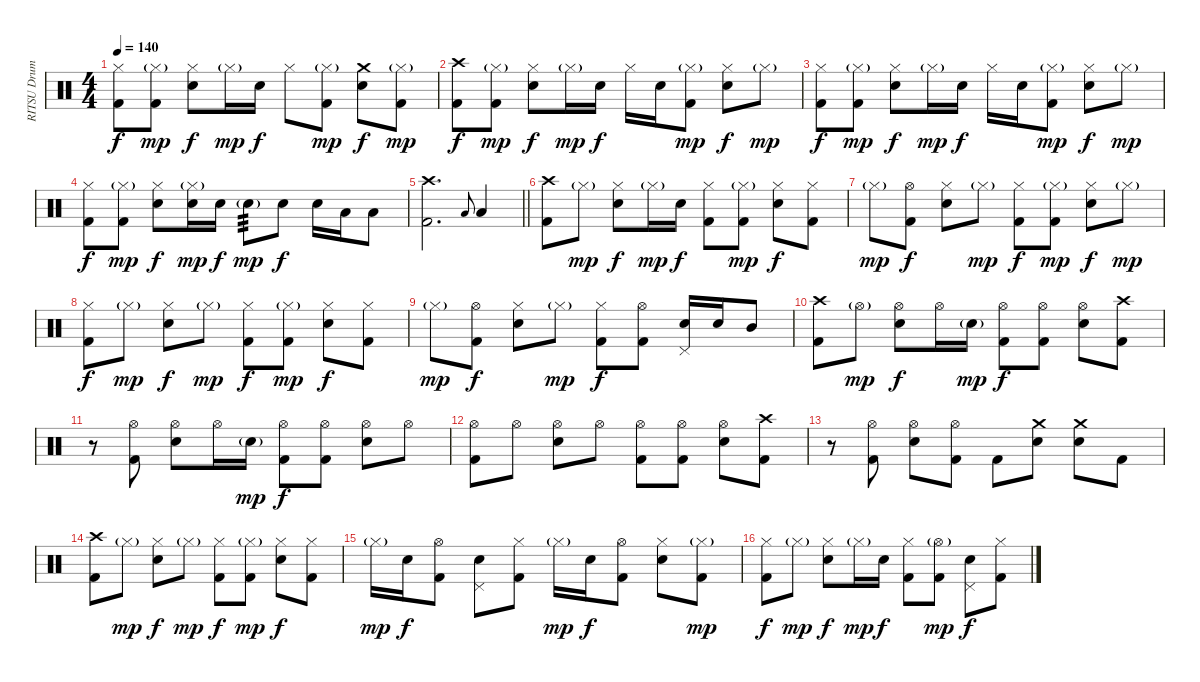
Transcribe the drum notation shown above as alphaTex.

\track ("RITSU Drums" "RITSU Drum") {instrument percussion}
\staff {score}
\articulation defaults
\ts (4 4)
\tempo 140
\clef neutral
\ks c
("Hi-Hat (closed)" "Kick (hit) 2").8{dy f} ("Hi-Hat (closed)"{g} "Kick (hit) 2").8{dy mp} ("Hi-Hat (closed)" "Electric Snare (hit)").8{dy f} "Hi-Hat (closed)"{g}.16{dy mp} "Electric Snare (hit)".16{dy f} "Hi-Hat (closed)".8 ("Hi-Hat (closed)"{g} "Kick (hit) 2").8{dy mp} ("Crash medium (hit)" "Electric Snare (hit)").8{dy f} ("Hi-Hat (closed)"{g} "Kick (hit) 2").8{dy mp} |
("Crash high (hit)" "Kick (hit) 2").8{dy f} ("Hi-Hat (closed)"{g} "Kick (hit) 2").8{dy mp} ("Hi-Hat (closed)" "Electric Snare (hit)").8{dy f} "Hi-Hat (closed)"{g}.16{dy mp} "Electric Snare (hit)".16{dy f} "Hi-Hat (closed)".16 "Electric Snare (hit)".16 ("Hi-Hat (closed)"{g} "Kick (hit) 2").8{dy mp} ("Hi-Hat (closed)" "Electric Snare (hit)").8{dy f} "Hi-Hat (closed)"{g}.8{dy mp} |
("Hi-Hat (closed)" "Kick (hit) 2").8{dy f} ("Hi-Hat (closed)"{g} "Kick (hit) 2").8{dy mp} ("Hi-Hat (closed)" "Electric Snare (hit)").8{dy f} "Hi-Hat (closed)"{g}.16{dy mp} "Electric Snare (hit)".16{dy f} "Hi-Hat (closed)".16 "Electric Snare (hit)".16 ("Hi-Hat (closed)"{g} "Kick (hit) 2").8{dy mp} ("Hi-Hat (closed)" "Electric Snare (hit)").8{dy f} "Hi-Hat (closed)"{g}.8{dy mp} |
("Hi-Hat (closed)" "Kick (hit) 2").8{dy f} ("Hi-Hat (closed)"{g} "Kick (hit) 2").8{dy mp} ("Hi-Hat (closed)" "Electric Snare (hit)").8{dy f} ("Hi-Hat (closed)"{g} "Electric Snare (hit)").16{dy mp} "Electric Snare (hit)".16{dy f} "Electric Snare (hit)"{g}.8{tp 3 dy mp} "Electric Snare (hit)".8{dy f} "Electric Snare (hit)".16 "Low Tom (hit)".16 "Low Floor Tom (hit)".8 |
\barLineRight lightlight
("Crash high (hit)" "Kick (hit) 2").2{d} "Low Floor Tom (hit)".8{gr onbeat} "Low Floor Tom (hit)".4 |
("Crash high (hit)" "Kick (hit) 2").8 "Hi-Hat (closed)"{g}.8{dy mp} ("Hi-Hat (closed)" "Electric Snare (hit)").8{dy f} "Hi-Hat (closed)"{g}.16{dy mp} "Electric Snare (hit)".16{dy f} ("Hi-Hat (closed)" "Kick (hit) 2").8 ("Hi-Hat (closed)"{g} "Kick (hit) 2").8{dy mp} ("Hi-Hat (closed)" "Electric Snare (hit)").8{dy f} ("Hi-Hat (closed)" "Kick (hit) 2").8 |
"Hi-Hat (closed)"{g}.8{dy mp} ("Hi-Hat (open)" "Kick (hit) 2").8{dy f} ("Hi-Hat (closed)" "Electric Snare (hit)").8 "Hi-Hat (closed)"{g}.8{dy mp} ("Hi-Hat (closed)" "Kick (hit) 2").8{dy f} ("Hi-Hat (closed)"{g} "Kick (hit) 2").8{dy mp} ("Hi-Hat (closed)" "Electric Snare (hit)").8{dy f} "Hi-Hat (closed)"{g}.8{dy mp} |
("Hi-Hat (closed)" "Kick (hit) 2").8{dy f} "Hi-Hat (closed)"{g}.8{dy mp} ("Hi-Hat (closed)" "Electric Snare (hit)").8{dy f} "Hi-Hat (closed)"{g}.8{dy mp} ("Hi-Hat (closed)" "Kick (hit) 2").8{dy f} ("Hi-Hat (closed)"{g} "Kick (hit) 2").8{dy mp} ("Hi-Hat (closed)" "Electric Snare (hit)").8{dy f} ("Hi-Hat (closed)" "Kick (hit) 2").8 |
"Hi-Hat (closed)"{g}.8{dy mp} ("Hi-Hat (open)" "Kick (hit) 2").8{dy f} ("Hi-Hat (closed)" "Electric Snare (hit)").8 "Hi-Hat (closed)"{g}.8{dy mp} ("Hi-Hat (closed)" "Kick (hit) 2").8{dy f} ("Hi-Hat (open)" "Kick (hit) 2").8 ("Pedal Hi-Hat (hit)" "Electric Snare (hit)").16 "Electric Snare (hit)".16 "Mid Tom (hit)".8 |
("Crash high (hit)" "Kick (hit) 2").8 "Hi-Hat (open)"{g}.8{dy mp} ("Hi-Hat (open)" "Electric Snare (hit)").8{dy f} "Hi-Hat (open)".16 "Electric Snare (hit)"{g}.16{dy mp} ("Hi-Hat (open)" "Kick (hit) 2").8{dy f} ("Hi-Hat (open)" "Kick (hit) 2").8 ("Hi-Hat (open)" "Electric Snare (hit)").8 ("Crash high (hit)" "Kick (hit) 2").8 |
r.8 ("Hi-Hat (open)" "Kick (hit) 2").8 ("Hi-Hat (open)" "Electric Snare (hit)").8 "Hi-Hat (open)".16 "Electric Snare (hit)"{g}.16{dy mp} ("Hi-Hat (open)" "Kick (hit) 2").8{dy f} ("Hi-Hat (open)" "Kick (hit) 2").8 ("Hi-Hat (open)" "Electric Snare (hit)").8 "Hi-Hat (open)".8 |
("Hi-Hat (open)" "Kick (hit) 2").8 "Hi-Hat (open)".8 ("Hi-Hat (open)" "Electric Snare (hit)").8 "Hi-Hat (open)".8 ("Hi-Hat (open)" "Kick (hit) 2").8 ("Hi-Hat (open)" "Kick (hit) 2").8 ("Hi-Hat (open)" "Electric Snare (hit)").8 ("Crash high (hit)" "Kick (hit) 2").8 |
r.8 ("Hi-Hat (open)" "Kick (hit) 2").8 ("Hi-Hat (open)" "Electric Snare (hit)").8 ("Hi-Hat (open)" "Kick (hit) 2").8 "Kick (hit) 2".8 ("Crash medium (hit)" "Electric Snare (hit)").8 ("Crash medium (hit)" "Electric Snare (hit)").8 "Kick (hit) 2".8 |
("Crash high (hit)" "Kick (hit) 2").8 "Hi-Hat (closed)"{g}.8{dy mp} ("Hi-Hat (closed)" "Electric Snare (hit)").8{dy f} "Hi-Hat (closed)"{g}.8{dy mp} ("Hi-Hat (closed)" "Kick (hit) 2").8{dy f} ("Hi-Hat (closed)"{g} "Kick (hit) 2").8{dy mp} ("Hi-Hat (closed)" "Electric Snare (hit)").8{dy f} ("Hi-Hat (closed)" "Kick (hit) 2").8 |
"Hi-Hat (closed)"{g}.16{dy mp} "Electric Snare (hit)".16{dy f} ("Hi-Hat (open)" "Kick (hit) 2").8 ("Pedal Hi-Hat (hit)" "Electric Snare (hit)").8 ("Hi-Hat (closed)" "Kick (hit) 2").8 "Hi-Hat (closed)"{g}.16{dy mp} "Electric Snare (hit)".16{dy f} ("Hi-Hat (open)" "Kick (hit) 2").8 ("Hi-Hat (closed)" "Electric Snare (hit)").8 ("Hi-Hat (closed)"{g} "Kick (hit) 2").8{dy mp} |
("Hi-Hat (closed)" "Kick (hit) 2").8{dy f} "Hi-Hat (closed)"{g}.8{dy mp} ("Hi-Hat (closed)" "Electric Snare (hit)").8{dy f} "Hi-Hat (closed)"{g}.16{dy mp} "Electric Snare (hit)".16{dy f} ("Hi-Hat (closed)" "Kick (hit) 2").8 ("Hi-Hat (open)"{g} "Kick (hit) 2").8{dy mp} ("Pedal Hi-Hat (hit)" "Electric Snare (hit)").8{dy f} ("Hi-Hat (closed)" "Kick (hit) 2").8
